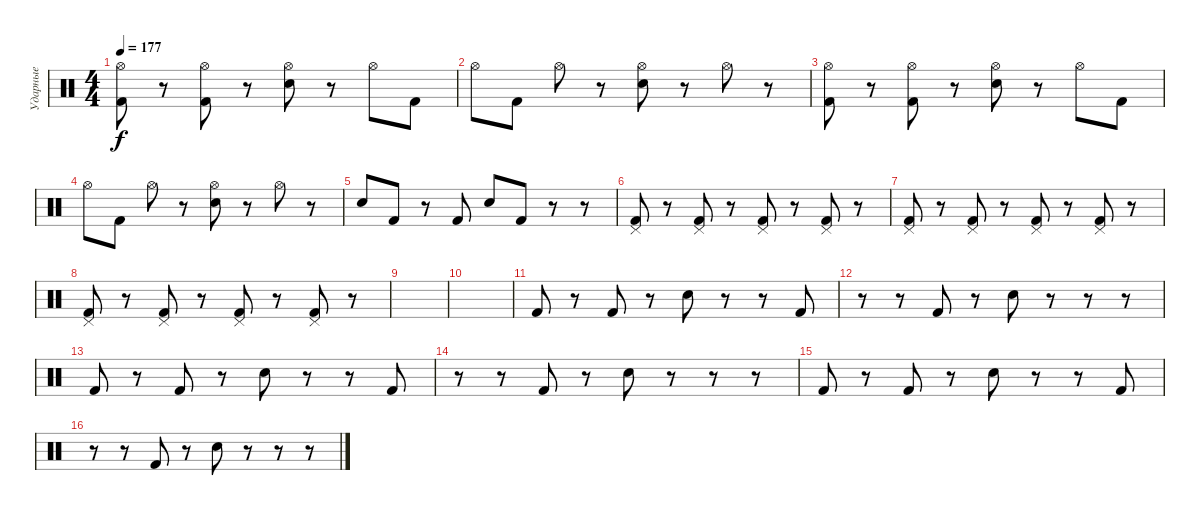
\track ("Ударные" "Ударные") {instrument percussion}
\staff {score}
\articulation defaults
\ts (4 4)
\tempo 177
\clef neutral
\ks c
("Kick (hit) 2" "Hi-Hat (open)").8{dy f} r.8 ("Kick (hit) 2" "Hi-Hat (open)").8 r.8 ("Electric Snare (hit)" "Hi-Hat (open)").8 r.8 "Hi-Hat (open)".8 "Kick (hit) 2".8 |
"Hi-Hat (open)".8 "Kick (hit) 2".8 "Hi-Hat (open)".8 r.8 ("Electric Snare (hit)" "Hi-Hat (open)").8 r.8 "Hi-Hat (open)".8 r.8 |
("Kick (hit) 2" "Hi-Hat (open)").8 r.8 ("Kick (hit) 2" "Hi-Hat (open)").8 r.8 ("Electric Snare (hit)" "Hi-Hat (open)").8 r.8 "Hi-Hat (open)".8 "Kick (hit) 2".8 |
"Hi-Hat (open)".8 "Kick (hit) 2".8 "Hi-Hat (open)".8 r.8 ("Electric Snare (hit)" "Hi-Hat (open)").8 r.8 "Hi-Hat (open)".8 r.8 |
"Electric Snare (hit)".8 "Kick (hit) 2".8 r.8 "Kick (hit) 2".8 "Electric Snare (hit)".8 "Kick (hit) 2".8 r.8 r.8 |
("Kick (hit) 2" "Pedal Hi-Hat (hit)").8 r.8 ("Kick (hit) 2" "Pedal Hi-Hat (hit)").8 r.8 ("Kick (hit) 2" "Pedal Hi-Hat (hit)").8 r.8 ("Kick (hit) 2" "Pedal Hi-Hat (hit)").8 r.8 |
("Kick (hit) 2" "Pedal Hi-Hat (hit)").8 r.8 ("Kick (hit) 2" "Pedal Hi-Hat (hit)").8 r.8 ("Kick (hit) 2" "Pedal Hi-Hat (hit)").8 r.8 ("Kick (hit) 2" "Pedal Hi-Hat (hit)").8 r.8 |
("Kick (hit) 2" "Pedal Hi-Hat (hit)").8 r.8 ("Kick (hit) 2" "Pedal Hi-Hat (hit)").8 r.8 ("Kick (hit) 2" "Pedal Hi-Hat (hit)").8 r.8 ("Kick (hit) 2" "Pedal Hi-Hat (hit)").8 r.8 |
|
|
"Kick (hit) 2".8 r.8 "Kick (hit) 2".8 r.8 "Hand Clap (hit)".8 r.8 r.8 "Kick (hit) 2".8 |
r.8 r.8 "Kick (hit) 2".8 r.8 "Hand Clap (hit)".8 r.8 r.8 r.8 |
"Kick (hit) 2".8 r.8 "Kick (hit) 2".8 r.8 "Hand Clap (hit)".8 r.8 r.8 "Kick (hit) 2".8 |
r.8 r.8 "Kick (hit) 2".8 r.8 "Hand Clap (hit)".8 r.8 r.8 r.8 |
"Kick (hit) 2".8 r.8 "Kick (hit) 2".8 r.8 "Hand Clap (hit)".8 r.8 r.8 "Kick (hit) 2".8 |
r.8 r.8 "Kick (hit) 2".8 r.8 "Hand Clap (hit)".8 r.8 r.8 r.8
